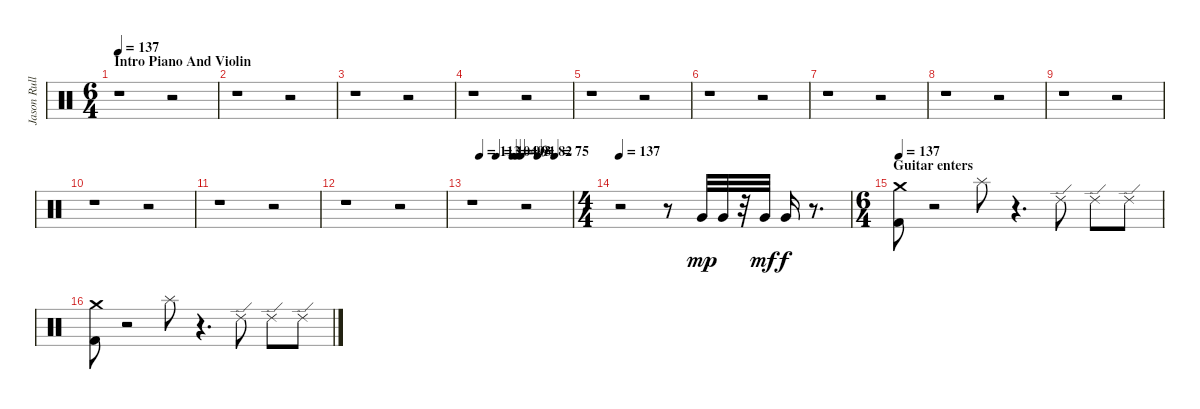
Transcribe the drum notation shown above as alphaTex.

\track ("Jason Rullo" "Jason Rull") {instrument percussion}
\staff {score}
\articulation defaults
\ts (6 4)
\section ("" "Intro Piano And Violin")
\tempo 137
\tempo 115
\tempo 137
\clef neutral
\ks c
r.1{dy mp} r.2 |
r.1 r.2 |
r.1 r.2 |
r.1 r.2 |
r.1 r.2 |
r.1 r.2 |
r.1 r.2 |
r.1 r.2 |
r.1 r.2 |
r.1 r.2 |
r.1 r.2 |
r.1 r.2 |
\tempo (113 0.08333333333333333)
\tempo (104 0.25)
\tempo (96 0.4166666666666667)
\tempo (93 0.4583333333333333)
\tempo (91 0.5)
\tempo (82 0.6666666666666666)
\tempo (75 0.8333333333333334)
r.1 r.2 |
\ts (4 4)
\tempo 137
r.2 r.8 "Very Low Tom (hit)".32 "Very Low Tom (hit)".32 r.32 "Very Low Tom (hit)".32{dy mf} "Very Low Tom (hit)".16{dy f} r.8{d} |
\ts (6 4)
\section ("" "Guitar enters")
\tempo 137
("Crash medium (hit)" "Kick (hit) 2").8 r.2 "Splash (hit)".8 r.4{d} "Ride (edge) 2".8 "Ride (edge) 2".8 "Ride (edge) 2".8 |
("Crash medium (hit)" "Kick (hit) 2").8 r.2 "Splash (hit)".8 r.4{d} "Ride (edge) 2".8 "Ride (edge) 2".8 "Ride (edge) 2".8
